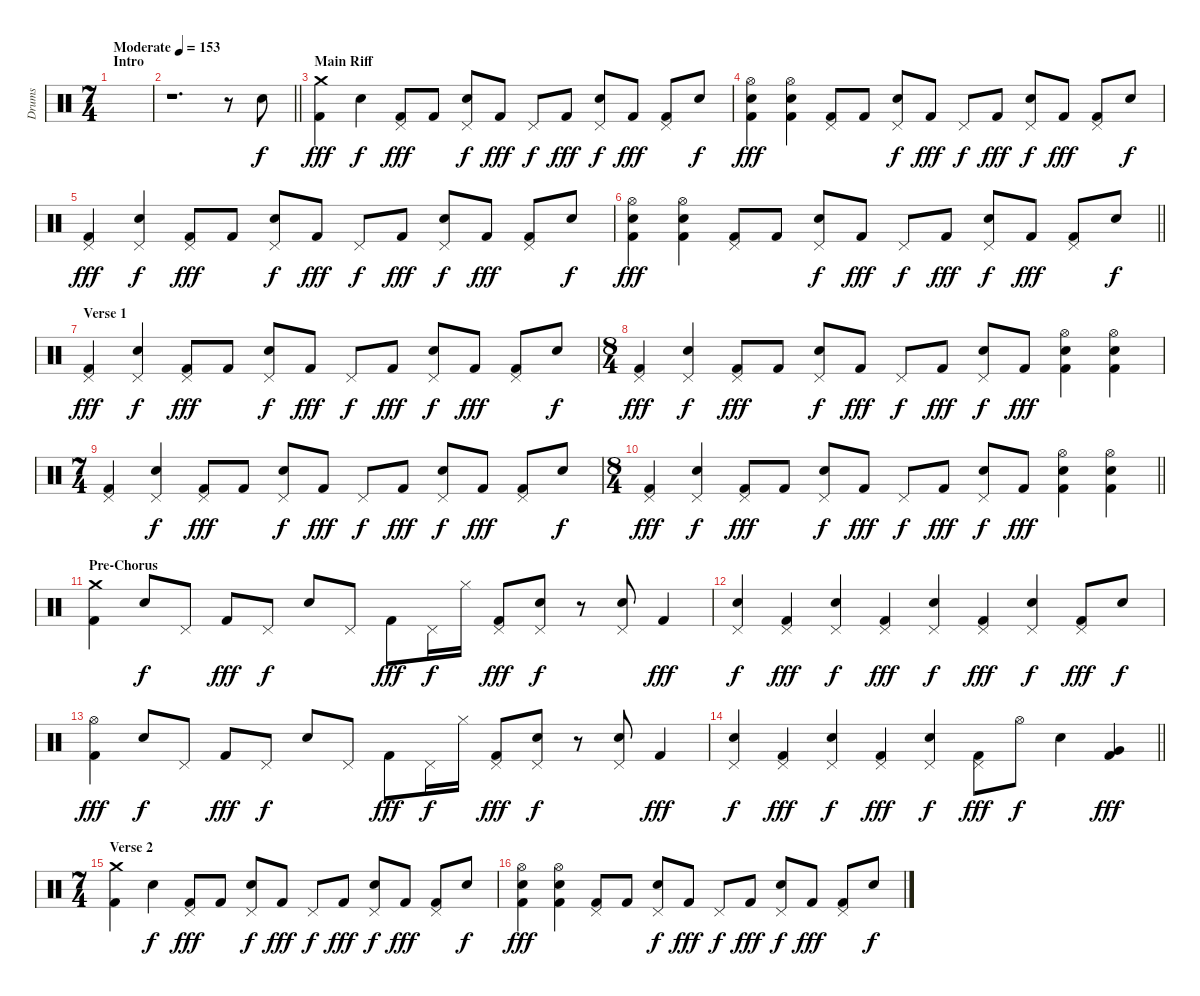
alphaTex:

\track ("Drums" "Drums") {instrument percussion}
\staff {score}
\articulation defaults
\ts (7 4)
\section ("" "Intro")
\tempo (153 "Moderate")
\clef neutral
\ks c
|
\barLineRight lightlight
r.1{d} r.8 "Electric Snare (hit)".8 |
\section ("" "Main Riff")
("Crash medium (hit)" "Kick (hit) 2").4{dy fff} "Electric Snare (hit)".4{dy f} ("Pedal Hi-Hat (hit)" "Kick (hit) 2").8{dy fff} "Kick (hit) 2".8 ("Pedal Hi-Hat (hit)" "Electric Snare (hit)").8{dy f} "Kick (hit) 2".8{dy fff} "Pedal Hi-Hat (hit)".8{dy f} "Kick (hit) 2".8{dy fff} ("Pedal Hi-Hat (hit)" "Electric Snare (hit)").8{dy f} "Kick (hit) 2".8{dy fff} ("Pedal Hi-Hat (hit)" "Kick (hit) 2").8 "Electric Snare (hit)".8{dy f} |
("Hi-Hat (open)" "Electric Snare (hit)" "Kick (hit) 2").4{dy fff} ("Hi-Hat (open)" "Electric Snare (hit)" "Kick (hit) 2").4 ("Pedal Hi-Hat (hit)" "Kick (hit) 2").8 "Kick (hit) 2".8 ("Pedal Hi-Hat (hit)" "Electric Snare (hit)").8{dy f} "Kick (hit) 2".8{dy fff} "Pedal Hi-Hat (hit)".8{dy f} "Kick (hit) 2".8{dy fff} ("Pedal Hi-Hat (hit)" "Electric Snare (hit)").8{dy f} "Kick (hit) 2".8{dy fff} ("Pedal Hi-Hat (hit)" "Kick (hit) 2").8 "Electric Snare (hit)".8{dy f} |
("Pedal Hi-Hat (hit)" "Kick (hit) 2").4{dy fff} ("Pedal Hi-Hat (hit)" "Electric Snare (hit)").4{dy f} ("Pedal Hi-Hat (hit)" "Kick (hit) 2").8{dy fff} "Kick (hit) 2".8 ("Pedal Hi-Hat (hit)" "Electric Snare (hit)").8{dy f} "Kick (hit) 2".8{dy fff} "Pedal Hi-Hat (hit)".8{dy f} "Kick (hit) 2".8{dy fff} ("Pedal Hi-Hat (hit)" "Electric Snare (hit)").8{dy f} "Kick (hit) 2".8{dy fff} ("Pedal Hi-Hat (hit)" "Kick (hit) 2").8 "Electric Snare (hit)".8{dy f} |
\barLineRight lightlight
("Hi-Hat (open)" "Electric Snare (hit)" "Kick (hit) 2").4{dy fff} ("Hi-Hat (open)" "Electric Snare (hit)" "Kick (hit) 2").4 ("Pedal Hi-Hat (hit)" "Kick (hit) 2").8 "Kick (hit) 2".8 ("Pedal Hi-Hat (hit)" "Electric Snare (hit)").8{dy f} "Kick (hit) 2".8{dy fff} "Pedal Hi-Hat (hit)".8{dy f} "Kick (hit) 2".8{dy fff} ("Pedal Hi-Hat (hit)" "Electric Snare (hit)").8{dy f} "Kick (hit) 2".8{dy fff} ("Pedal Hi-Hat (hit)" "Kick (hit) 2").8 "Electric Snare (hit)".8{dy f} |
\section ("" "Verse 1")
("Pedal Hi-Hat (hit)" "Kick (hit) 2").4{dy fff} ("Pedal Hi-Hat (hit)" "Electric Snare (hit)").4{dy f} ("Pedal Hi-Hat (hit)" "Kick (hit) 2").8{dy fff} "Kick (hit) 2".8 ("Pedal Hi-Hat (hit)" "Electric Snare (hit)").8{dy f} "Kick (hit) 2".8{dy fff} "Pedal Hi-Hat (hit)".8{dy f} "Kick (hit) 2".8{dy fff} ("Pedal Hi-Hat (hit)" "Electric Snare (hit)").8{dy f} "Kick (hit) 2".8{dy fff} ("Pedal Hi-Hat (hit)" "Kick (hit) 2").8 "Electric Snare (hit)".8{dy f} |
\ts (8 4)
("Pedal Hi-Hat (hit)" "Kick (hit) 2").4{dy fff} ("Pedal Hi-Hat (hit)" "Electric Snare (hit)").4{dy f} ("Pedal Hi-Hat (hit)" "Kick (hit) 2").8{dy fff} "Kick (hit) 2".8 ("Pedal Hi-Hat (hit)" "Electric Snare (hit)").8{dy f} "Kick (hit) 2".8{dy fff} "Pedal Hi-Hat (hit)".8{dy f} "Kick (hit) 2".8{dy fff} ("Pedal Hi-Hat (hit)" "Electric Snare (hit)").8{dy f} "Kick (hit) 2".8{dy fff} ("Hi-Hat (open)" "Electric Snare (hit)" "Kick (hit) 2").4 ("Hi-Hat (open)" "Electric Snare (hit)" "Kick (hit) 2").4 |
\ts (7 4)
("Pedal Hi-Hat (hit)" "Kick (hit) 2").4 ("Pedal Hi-Hat (hit)" "Electric Snare (hit)").4{dy f} ("Pedal Hi-Hat (hit)" "Kick (hit) 2").8{dy fff} "Kick (hit) 2".8 ("Pedal Hi-Hat (hit)" "Electric Snare (hit)").8{dy f} "Kick (hit) 2".8{dy fff} "Pedal Hi-Hat (hit)".8{dy f} "Kick (hit) 2".8{dy fff} ("Pedal Hi-Hat (hit)" "Electric Snare (hit)").8{dy f} "Kick (hit) 2".8{dy fff} ("Pedal Hi-Hat (hit)" "Kick (hit) 2").8 "Electric Snare (hit)".8{dy f} |
\ts (8 4)
\barLineRight lightlight
("Pedal Hi-Hat (hit)" "Kick (hit) 2").4{dy fff} ("Pedal Hi-Hat (hit)" "Electric Snare (hit)").4{dy f} ("Pedal Hi-Hat (hit)" "Kick (hit) 2").8{dy fff} "Kick (hit) 2".8 ("Pedal Hi-Hat (hit)" "Electric Snare (hit)").8{dy f} "Kick (hit) 2".8{dy fff} "Pedal Hi-Hat (hit)".8{dy f} "Kick (hit) 2".8{dy fff} ("Pedal Hi-Hat (hit)" "Electric Snare (hit)").8{dy f} "Kick (hit) 2".8{dy fff} ("Hi-Hat (open)" "Electric Snare (hit)" "Kick (hit) 2").4 ("Hi-Hat (open)" "Electric Snare (hit)" "Kick (hit) 2").4 |
\section ("" "Pre-Chorus")
("Crash medium (hit)" "Kick (hit) 2").4 "Electric Snare (hit)".8{dy f} "Pedal Hi-Hat (hit)".8 "Kick (hit) 2".8{dy fff} "Pedal Hi-Hat (hit)".8{dy f} "Electric Snare (hit)".8 "Pedal Hi-Hat (hit)".8 "Kick (hit) 2".8{dy fff} "Pedal Hi-Hat (hit)".16{dy f} "Hi-Hat (closed)".16 ("Pedal Hi-Hat (hit)" "Kick (hit) 2").8{dy fff} ("Pedal Hi-Hat (hit)" "Electric Snare (hit)").8{dy f} r.8 ("Pedal Hi-Hat (hit)" "Electric Snare (hit)").8 "Kick (hit) 2".4{dy fff} |
("Pedal Hi-Hat (hit)" "Electric Snare (hit)").4{dy f} ("Pedal Hi-Hat (hit)" "Kick (hit) 2").4{dy fff} ("Pedal Hi-Hat (hit)" "Electric Snare (hit)").4{dy f} ("Pedal Hi-Hat (hit)" "Kick (hit) 2").4{dy fff} ("Pedal Hi-Hat (hit)" "Electric Snare (hit)").4{dy f} ("Pedal Hi-Hat (hit)" "Kick (hit) 2").4{dy fff} ("Pedal Hi-Hat (hit)" "Electric Snare (hit)").4{dy f} ("Pedal Hi-Hat (hit)" "Kick (hit) 2").8{dy fff} "Electric Snare (hit)".8{dy f} |
("Hi-Hat (open)" "Kick (hit) 2").4{dy fff} "Electric Snare (hit)".8{dy f} "Pedal Hi-Hat (hit)".8 "Kick (hit) 2".8{dy fff} "Pedal Hi-Hat (hit)".8{dy f} "Electric Snare (hit)".8 "Pedal Hi-Hat (hit)".8 "Kick (hit) 2".8{dy fff} "Pedal Hi-Hat (hit)".16{dy f} "Hi-Hat (closed)".16 ("Pedal Hi-Hat (hit)" "Kick (hit) 2").8{dy fff} ("Pedal Hi-Hat (hit)" "Electric Snare (hit)").8{dy f} r.8 ("Pedal Hi-Hat (hit)" "Electric Snare (hit)").8 "Kick (hit) 2".4{dy fff} |
\barLineRight lightlight
("Pedal Hi-Hat (hit)" "Electric Snare (hit)").4{dy f} ("Pedal Hi-Hat (hit)" "Kick (hit) 2").4{dy fff} ("Pedal Hi-Hat (hit)" "Electric Snare (hit)").4{dy f} ("Pedal Hi-Hat (hit)" "Kick (hit) 2").4{dy fff} ("Pedal Hi-Hat (hit)" "Electric Snare (hit)").4{dy f} ("Pedal Hi-Hat (hit)" "Kick (hit) 2").8{dy fff} "Hi-Hat (open)".8{dy f} "Electric Snare (hit)".4 ("Very Low Tom (hit)" "Kick (hit) 2").4{dy fff} |
\ts (7 4)
\section ("" "Verse 2")
("Crash medium (hit)" "Kick (hit) 2").4 "Electric Snare (hit)".4{dy f} ("Pedal Hi-Hat (hit)" "Kick (hit) 2").8{dy fff} "Kick (hit) 2".8 ("Pedal Hi-Hat (hit)" "Electric Snare (hit)").8{dy f} "Kick (hit) 2".8{dy fff} "Pedal Hi-Hat (hit)".8{dy f} "Kick (hit) 2".8{dy fff} ("Pedal Hi-Hat (hit)" "Electric Snare (hit)").8{dy f} "Kick (hit) 2".8{dy fff} ("Pedal Hi-Hat (hit)" "Kick (hit) 2").8 "Electric Snare (hit)".8{dy f} |
("Hi-Hat (open)" "Electric Snare (hit)" "Kick (hit) 2").4{dy fff} ("Hi-Hat (open)" "Electric Snare (hit)" "Kick (hit) 2").4 ("Pedal Hi-Hat (hit)" "Kick (hit) 2").8 "Kick (hit) 2".8 ("Pedal Hi-Hat (hit)" "Electric Snare (hit)").8{dy f} "Kick (hit) 2".8{dy fff} "Pedal Hi-Hat (hit)".8{dy f} "Kick (hit) 2".8{dy fff} ("Pedal Hi-Hat (hit)" "Electric Snare (hit)").8{dy f} "Kick (hit) 2".8{dy fff} ("Pedal Hi-Hat (hit)" "Kick (hit) 2").8 "Electric Snare (hit)".8{dy f}
